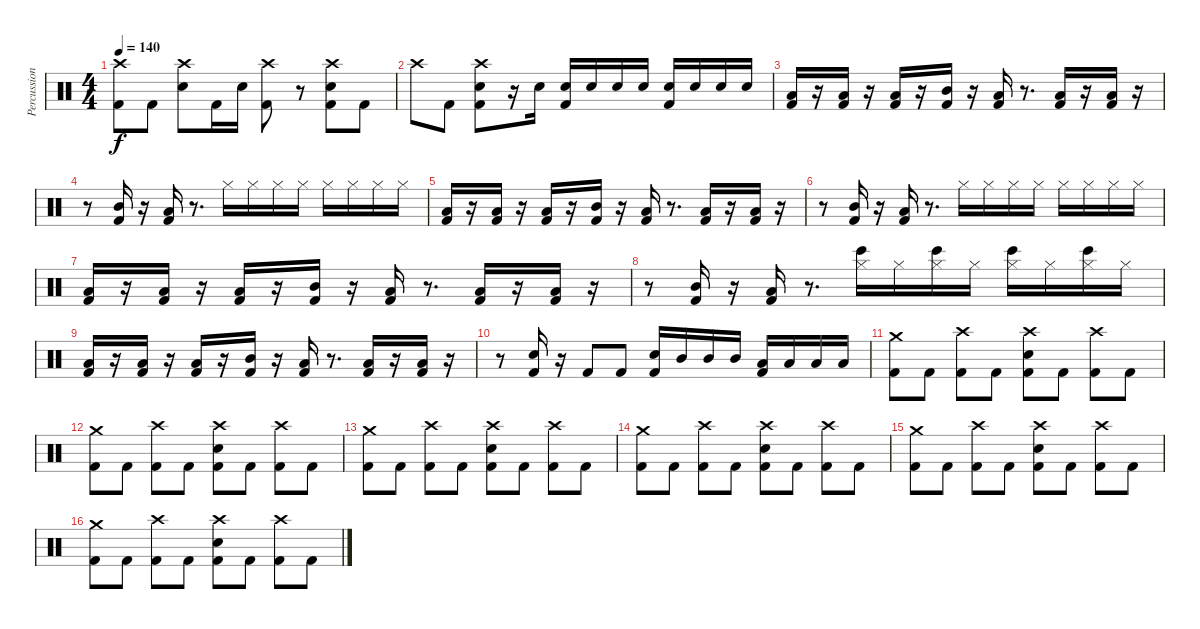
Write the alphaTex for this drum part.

\track ("Percussion" "Percussion") {instrument percussion}
\staff {score}
\articulation defaults
\ts (4 4)
\tempo 140
\clef neutral
\ks c
("Crash high (hit)" "Kick (hit) 2").8{dy f} "Kick (hit) 2".8 ("Crash high (hit)" "Electric Snare (hit)").8 "Kick (hit) 2".16 "Electric Snare (hit)".16 ("Crash high (hit)" "Kick (hit) 2").8 r.8 ("Crash high (hit)" "Electric Snare (hit)" "Kick (hit) 2").8 "Kick (hit) 2".8 |
"Crash high (hit)".8 "Kick (hit) 2".8 ("Crash high (hit)" "Electric Snare (hit)" "Kick (hit) 2").8 r.16 "Electric Snare (hit)".16 ("Electric Snare (hit)" "Kick (hit) 2").16 "Electric Snare (hit)".16 "Electric Snare (hit)".16 "Electric Snare (hit)".16 ("Electric Snare (hit)" "Kick (hit) 2").16 "Electric Snare (hit)".16 "Electric Snare (hit)".16 "Electric Snare (hit)".16 |
("Low Floor Tom (hit)" "Kick (hit) 2").16 r.16 ("Low Tom (hit)" "Kick (hit) 2").16 r.16 ("Low Floor Tom (hit)" "Kick (hit) 2").16 r.16 ("Mid Tom (hit)" "Kick (hit) 2").16 r.16 ("Low Floor Tom (hit)" "Kick (hit) 2").16 r.8{d} ("Low Tom (hit)" "Kick (hit) 2").16 r.16 ("Low Floor Tom (hit)" "Kick (hit) 2").16 r.16 |
r.8 ("Mid Tom (hit)" "Kick (hit) 2").16 r.16 ("Low Floor Tom (hit)" "Kick (hit) 2").16 r.8{d} "Hi-Hat (closed)".16 "Hi-Hat (closed)".16 "Hi-Hat (closed)".16 "Hi-Hat (closed)".16 "Hi-Hat (closed)".16 "Hi-Hat (closed)".16 "Hi-Hat (closed)".16 "Hi-Hat (closed)".16 |
("Low Floor Tom (hit)" "Kick (hit) 2").16 r.16 ("Low Tom (hit)" "Kick (hit) 2").16 r.16 ("Low Floor Tom (hit)" "Kick (hit) 2").16 r.16 ("Mid Tom (hit)" "Kick (hit) 2").16 r.16 ("Low Floor Tom (hit)" "Kick (hit) 2").16 r.8{d} ("Low Tom (hit)" "Kick (hit) 2").16 r.16 ("Low Floor Tom (hit)" "Kick (hit) 2").16 r.16 |
r.8 ("Mid Tom (hit)" "Kick (hit) 2").16 r.16 ("Low Floor Tom (hit)" "Kick (hit) 2").16 r.8{d} "Hi-Hat (closed)".16 "Hi-Hat (closed)".16 "Hi-Hat (closed)".16 "Hi-Hat (closed)".16 "Hi-Hat (closed)".16 "Hi-Hat (closed)".16 "Hi-Hat (closed)".16 "Hi-Hat (closed)".16 |
("Low Floor Tom (hit)" "Kick (hit) 2").16 r.16 ("Low Tom (hit)" "Kick (hit) 2").16 r.16 ("Low Floor Tom (hit)" "Kick (hit) 2").16 r.16 ("Mid Tom (hit)" "Kick (hit) 2").16 r.16 ("Low Floor Tom (hit)" "Kick (hit) 2").16 r.8{d} ("Low Tom (hit)" "Kick (hit) 2").16 r.16 ("Low Floor Tom (hit)" "Kick (hit) 2").16 r.16 |
r.8 ("Mid Tom (hit)" "Kick (hit) 2").16 r.16 ("Low Floor Tom (hit)" "Kick (hit) 2").16 r.8{d} ("Bongo High (hit)" "Hi-Hat (closed)").16 "Hi-Hat (closed)".16 ("Bongo High (hit)" "Hi-Hat (closed)").16 "Hi-Hat (closed)".16 ("Bongo High (hit)" "Hi-Hat (closed)").16 "Hi-Hat (closed)".16 ("Bongo High (hit)" "Hi-Hat (closed)").16 "Hi-Hat (closed)".16 |
("Low Floor Tom (hit)" "Kick (hit) 2").16 r.16 ("Low Tom (hit)" "Kick (hit) 2").16 r.16 ("Low Floor Tom (hit)" "Kick (hit) 2").16 r.16 ("Mid Tom (hit)" "Kick (hit) 2").16 r.16 ("Low Floor Tom (hit)" "Kick (hit) 2").16 r.8{d} ("Low Tom (hit)" "Kick (hit) 2").16 r.16 ("Low Floor Tom (hit)" "Kick (hit) 2").16 r.16 |
r.8 ("Electric Snare (hit)" "Kick (hit) 2").16 r.16 "Kick (hit) 2".8 "Kick (hit) 2".8 ("Electric Snare (hit)" "Kick (hit) 2").16 "Mid Tom (hit)".16 "Mid Tom (hit)".16 "Mid Tom (hit)".16 ("Low Tom (hit)" "Kick (hit) 2").16 "Low Tom (hit)".16 "Low Floor Tom (hit)".16 "Low Floor Tom (hit)".16 |
("Crash medium (hit)" "Kick (hit) 2").8 "Kick (hit) 2".8 ("Crash high (hit)" "Kick (hit) 2").8 "Kick (hit) 2".8 ("Crash high (hit)" "Electric Snare (hit)" "Kick (hit) 2").8 "Kick (hit) 2".8 ("Crash high (hit)" "Kick (hit) 2").8 "Kick (hit) 2".8 |
("Crash medium (hit)" "Kick (hit) 2").8 "Kick (hit) 2".8 ("Crash high (hit)" "Kick (hit) 2").8 "Kick (hit) 2".8 ("Crash high (hit)" "Electric Snare (hit)" "Kick (hit) 2").8 "Kick (hit) 2".8 ("Crash high (hit)" "Kick (hit) 2").8 "Kick (hit) 2".8 |
("Crash medium (hit)" "Kick (hit) 2").8 "Kick (hit) 2".8 ("Crash high (hit)" "Kick (hit) 2").8 "Kick (hit) 2".8 ("Crash high (hit)" "Electric Snare (hit)" "Kick (hit) 2").8 "Kick (hit) 2".8 ("Crash high (hit)" "Kick (hit) 2").8 "Kick (hit) 2".8 |
("Crash medium (hit)" "Kick (hit) 2").8 "Kick (hit) 2".8 ("Crash high (hit)" "Kick (hit) 2").8 "Kick (hit) 2".8 ("Crash high (hit)" "Electric Snare (hit)" "Kick (hit) 2").8 "Kick (hit) 2".8 ("Crash high (hit)" "Kick (hit) 2").8 "Kick (hit) 2".8 |
("Crash medium (hit)" "Kick (hit) 2").8 "Kick (hit) 2".8 ("Crash high (hit)" "Kick (hit) 2").8 "Kick (hit) 2".8 ("Crash high (hit)" "Electric Snare (hit)" "Kick (hit) 2").8 "Kick (hit) 2".8 ("Crash high (hit)" "Kick (hit) 2").8 "Kick (hit) 2".8 |
("Crash medium (hit)" "Kick (hit) 2").8 "Kick (hit) 2".8 ("Crash high (hit)" "Kick (hit) 2").8 "Kick (hit) 2".8 ("Crash high (hit)" "Electric Snare (hit)" "Kick (hit) 2").8 "Kick (hit) 2".8 ("Crash high (hit)" "Kick (hit) 2").8 "Kick (hit) 2".8
